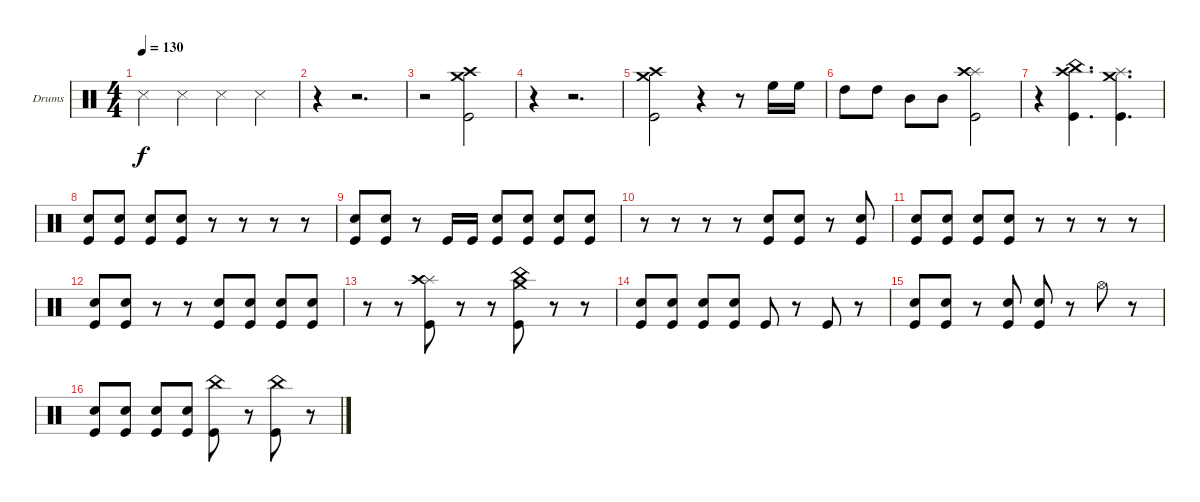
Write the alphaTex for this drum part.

\defaultSystemsLayout 4
\bracketExtendMode groupsimilarinstruments
\firstSystemTrackNameOrientation horizontal
\otherSystemsTrackNameOrientation horizontal
\track ("Drumkit" "Drums") {instrument percussion}
\staff {score}
\articulation defaults
\ts (4 4)
\tempo 130
\clef neutral
\scale
0.472222
\ks c "Snare (side stick) 3".4{dy f} "Snare (side stick) 3".4 "Snare (side stick) 3".4 "Snare (side stick) 3".4
|
\scale
0.263889 r.4 r.2{d} |
\scale
0.263889 r.2 ("Kick (hit)" "Crash medium (hit)" "Crash high (hit)").2 |
\scale
0.333333 r.4 r.2{d} |
\scale
0.333333 ("Kick (hit)" "Crash medium (hit)" "Crash high (hit)").2 r.4 r.8 "High Floor Tom (hit)".16 "High Floor Tom (hit)".16 |
\scale
0.333333 "High Tom (hit)".8 "High Tom (hit)".8 "Mid Tom (hit)".8 "Mid Tom (hit)".8 ("Kick (hit)" "Splash (hit)" "Crash high (hit)").2 |
\scale
0.333333 r.4 ("Kick (hit)" "China (hit)" "Crash high (hit)").4{d} ("Kick (hit)" "Splash (hit)" "Crash medium (hit)").4{d} |
\scale
0.333333 ("Kick (hit)" "Snare (hit) 2").8 ("Kick (hit)" "Snare (hit) 2").8 ("Kick (hit)" "Snare (hit) 2").8 ("Kick (hit)" "Snare (hit) 2").8 r.8 r.8 r.8 r.8 |
\scale
0.333333 ("Kick (hit)" "Snare (hit) 2").8 ("Kick (hit)" "Snare (hit) 2").8 r.8 "Kick (hit)".16 "Kick (hit)".16 ("Kick (hit)" "Snare (hit) 2").8 ("Kick (hit)" "Snare (hit) 2").8 ("Kick (hit)" "Snare (hit) 2").8 ("Kick (hit)" "Snare (hit) 2").8 |
\scale
0.333333 r.8 r.8 r.8 r.8 ("Kick (hit)" "Snare (hit) 2").8 ("Kick (hit)" "Snare (hit) 2").8 r.8 ("Kick (hit)" "Snare (hit) 2").8 |
\scale
0.333333 ("Kick (hit)" "Snare (hit) 2").8 ("Kick (hit)" "Snare (hit) 2").8 ("Kick (hit)" "Snare (hit) 2").8 ("Kick (hit)" "Snare (hit) 2").8 r.8 r.8 r.8 r.8 |
\scale
0.333333 ("Kick (hit)" "Snare (hit) 2").8 ("Kick (hit)" "Snare (hit) 2").8 r.8 r.8 ("Kick (hit)" "Snare (hit) 2").8 ("Kick (hit)" "Snare (hit) 2").8 ("Kick (hit)" "Snare (hit) 2").8 ("Kick (hit)" "Snare (hit) 2").8 |
\scale
0.333333 r.8 r.8 ("Kick (hit)" "Splash (hit)" "Crash high (hit)").8 r.8 r.8 ("Kick (hit)" "China (hit)" "Crash medium (hit)").8 r.8 r.8 |
\scale
0.333333 ("Kick (hit)" "Snare (hit) 2").8 ("Kick (hit)" "Snare (hit) 2").8 ("Kick (hit)" "Snare (hit) 2").8 ("Kick (hit)" "Snare (hit) 2").8 "Kick (hit)".8 r.8 "Kick (hit)".8 r.8 |
\scale
0.333333 ("Kick (hit)" "Snare (hit) 2").8 ("Kick (hit)" "Snare (hit) 2").8 r.8 ("Kick (hit)" "Snare (hit) 2").8 ("Kick (hit)" "Snare (hit) 2").8 r.8 "Hi-Hat (open)".8 r.8 |
\scale
0.333333 ("Kick (hit)" "Snare (hit) 2").8 ("Kick (hit)" "Snare (hit) 2").8 ("Kick (hit)" "Snare (hit) 2").8 ("Kick (hit)" "Snare (hit) 2").8 ("Kick (hit)" "China (hit)").8 r.8 ("Kick (hit)" "China (hit)").8 r.8
